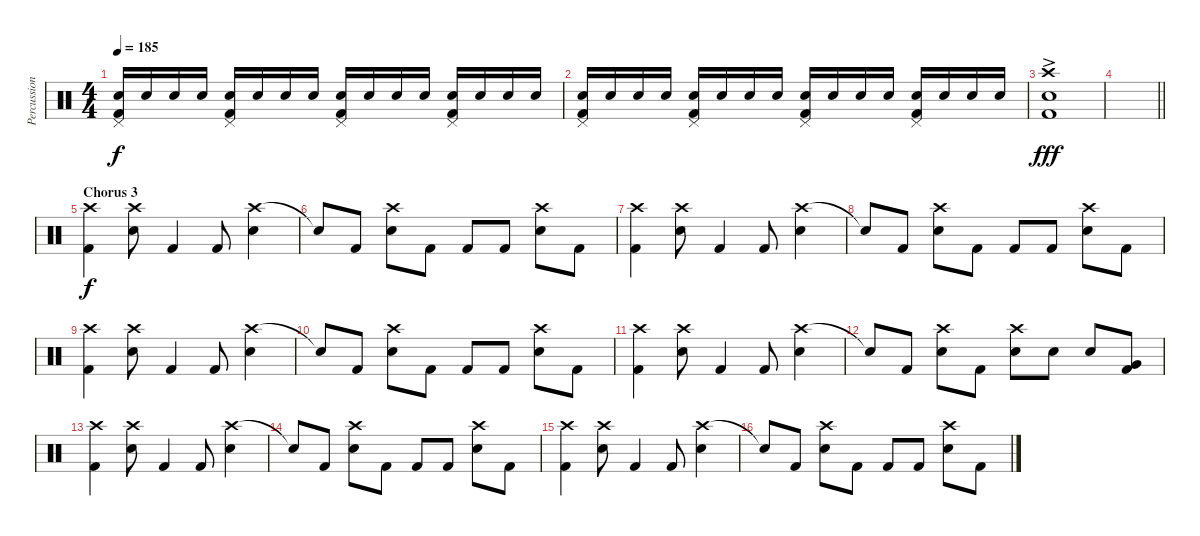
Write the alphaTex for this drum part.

\track ("Percussion" "Percussion") {instrument percussion}
\staff {score}
\articulation defaults
\ts (4 4)
\tempo 185
\clef neutral
\ks c
("Pedal Hi-Hat (hit)" "Snare (hit) 2" "Kick (hit) 2").16{dy f} "Snare (hit) 2".16 "Snare (hit) 2".16 "Snare (hit) 2".16 ("Pedal Hi-Hat (hit)" "Snare (hit) 2" "Kick (hit) 2").16 "Snare (hit) 2".16 "Snare (hit) 2".16 "Snare (hit) 2".16 ("Pedal Hi-Hat (hit)" "Snare (hit) 2" "Kick (hit) 2").16 "Snare (hit) 2".16 "Snare (hit) 2".16 "Snare (hit) 2".16 ("Pedal Hi-Hat (hit)" "Snare (hit) 2" "Kick (hit) 2").16 "Snare (hit) 2".16 "Snare (hit) 2".16 "Snare (hit) 2".16 |
("Pedal Hi-Hat (hit)" "Snare (hit) 2" "Kick (hit) 2").16 "Snare (hit) 2".16 "Snare (hit) 2".16 "Snare (hit) 2".16 ("Pedal Hi-Hat (hit)" "Snare (hit) 2" "Kick (hit) 2").16 "Snare (hit) 2".16 "Snare (hit) 2".16 "Snare (hit) 2".16 ("Pedal Hi-Hat (hit)" "Snare (hit) 2" "Kick (hit) 2").16 "Snare (hit) 2".16 "Snare (hit) 2".16 "Snare (hit) 2".16 ("Pedal Hi-Hat (hit)" "Snare (hit) 2" "Kick (hit) 2").16 "Snare (hit) 2".16 "Snare (hit) 2".16 "Snare (hit) 2".16 |
("Crash high (hit)" "Snare (hit) 2"{ac} "Kick (hit) 2").1{dy fff} |
\barLineRight lightlight
|
\section ("" "Chorus 3")
("Crash high (hit)" "Kick (hit) 2").4{dy f} ("Crash high (hit)" "Snare (hit) 2").8 "Kick (hit) 2".4 "Kick (hit) 2".8 ("Crash high (hit)" "Snare (hit) 2").4 |
"Snare (hit)"{t}.8 "Kick (hit) 2".8 ("Crash high (hit)" "Snare (hit) 2").8 "Kick (hit) 2".8 "Kick (hit) 2".8 "Kick (hit) 2".8 ("Crash high (hit)" "Snare (hit) 2").8 "Kick (hit) 2".8 |
("Crash high (hit)" "Kick (hit) 2").4 ("Crash high (hit)" "Snare (hit) 2").8 "Kick (hit) 2".4 "Kick (hit) 2".8 ("Crash high (hit)" "Snare (hit) 2").4 |
"Snare (hit)"{t}.8 "Kick (hit) 2".8 ("Crash high (hit)" "Snare (hit) 2").8 "Kick (hit) 2".8 "Kick (hit) 2".8 "Kick (hit) 2".8 ("Crash high (hit)" "Snare (hit) 2").8 "Kick (hit) 2".8 |
("Crash high (hit)" "Kick (hit) 2").4 ("Crash high (hit)" "Snare (hit) 2").8 "Kick (hit) 2".4 "Kick (hit) 2".8 ("Crash high (hit)" "Snare (hit) 2").4 |
"Snare (hit)"{t}.8 "Kick (hit) 2".8 ("Crash high (hit)" "Snare (hit) 2").8 "Kick (hit) 2".8 "Kick (hit) 2".8 "Kick (hit) 2".8 ("Crash high (hit)" "Snare (hit) 2").8 "Kick (hit) 2".8 |
("Crash high (hit)" "Kick (hit) 2").4 ("Crash high (hit)" "Snare (hit) 2").8 "Kick (hit) 2".4 "Kick (hit) 2".8 ("Crash high (hit)" "Snare (hit) 2").4 |
"Snare (hit)"{t}.8 "Kick (hit) 2".8 ("Crash high (hit)" "Snare (hit) 2").8 "Kick (hit) 2".8 ("Crash high (hit)" "Snare (hit) 2").8 "Snare (hit) 2".8 "Snare (hit) 2".8 ("Very Low Tom (hit)" "Kick (hit) 2").8 |
("Crash high (hit)" "Kick (hit) 2").4 ("Crash high (hit)" "Snare (hit) 2").8 "Kick (hit) 2".4 "Kick (hit) 2".8 ("Crash high (hit)" "Snare (hit) 2").4 |
"Snare (hit)"{t}.8 "Kick (hit) 2".8 ("Crash high (hit)" "Snare (hit) 2").8 "Kick (hit) 2".8 "Kick (hit) 2".8 "Kick (hit) 2".8 ("Crash high (hit)" "Snare (hit) 2").8 "Kick (hit) 2".8 |
("Crash high (hit)" "Kick (hit) 2").4 ("Crash high (hit)" "Snare (hit) 2").8 "Kick (hit) 2".4 "Kick (hit) 2".8 ("Crash high (hit)" "Snare (hit) 2").4 |
"Snare (hit)"{t}.8 "Kick (hit) 2".8 ("Crash high (hit)" "Snare (hit) 2").8 "Kick (hit) 2".8 "Kick (hit) 2".8 "Kick (hit) 2".8 ("Crash high (hit)" "Snare (hit) 2").8 "Kick (hit) 2".8
